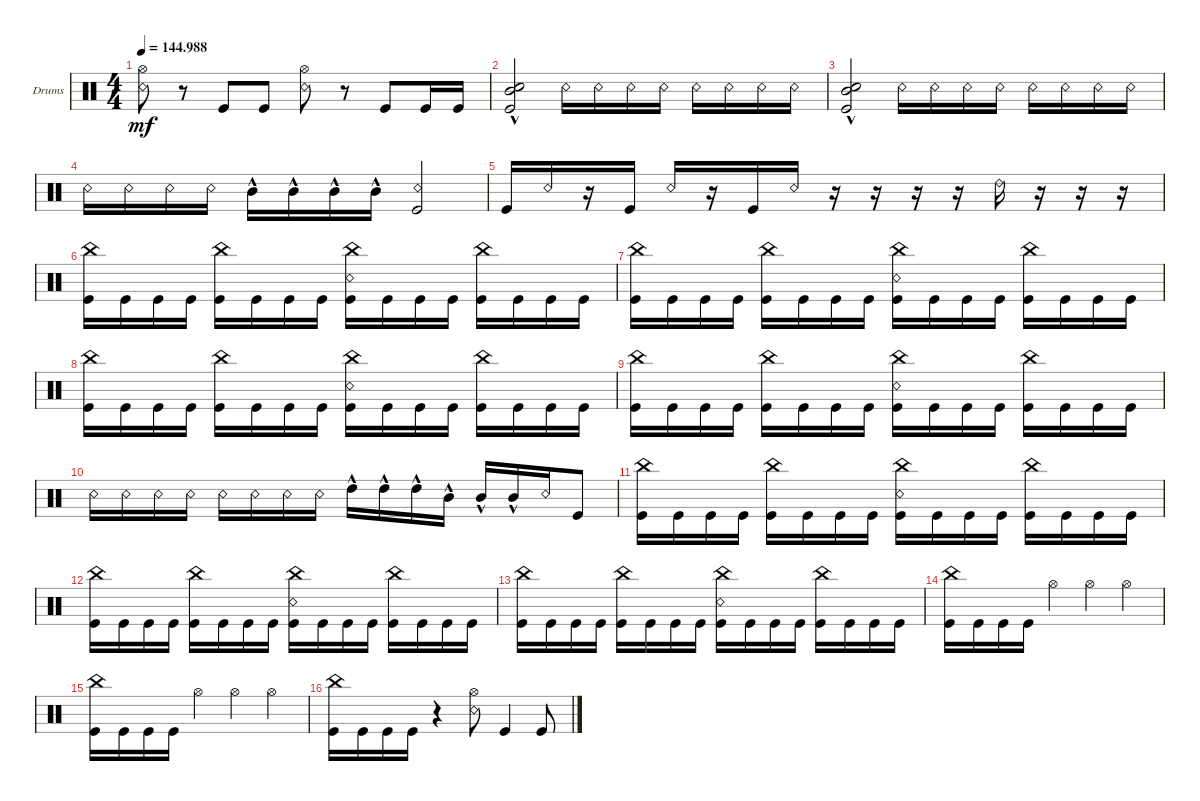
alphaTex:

\defaultSystemsLayout 4
\bracketExtendMode groupsimilarinstruments
\firstSystemTrackNameOrientation horizontal
\otherSystemsTrackNameOrientation horizontal
\track ("Drumkit" "Drums") {instrument percussion}
\staff {score}
\articulation defaults
\ts (4 4)
\tempo
144.988
\accidentals auto
\clef neutral
\ottava regular
\simile none
\ks c
("Snare (rim shot)" "Hi-Hat (open)").8{dy mf} r.8 "Kick (hit)".8 "Kick (hit)".8 ("Snare (rim shot)" "Hi-Hat (open)").8 r.8 "Kick (hit)".8 "Kick (hit)".16 "Kick (hit)".16 |
("Snare (hit) 2"{hac} "Kick (hit)" "Mid Tom (hit)"{hac}).2 "Snare (rim shot)".16 "Snare (rim shot)".16 "Snare (rim shot)".16 "Snare (rim shot)".16 "Snare (rim shot)".16 "Snare (rim shot)".16 "Snare (rim shot)".16 "Snare (rim shot)".16 |
("Snare (hit) 2"{hac} "Kick (hit)" "Mid Tom (hit)"{hac}).2 "Snare (rim shot)".16 "Snare (rim shot)".16 "Snare (rim shot)".16 "Snare (rim shot)".16 "Snare (rim shot)".16 "Snare (rim shot)".16 "Snare (rim shot)".16 "Snare (rim shot)".16 |
"Snare (rim shot)".16 "Snare (rim shot)".16 "Snare (rim shot)".16 "Snare (rim shot)".16 "Mid Tom (hit)"{hac}.16 "Mid Tom (hit)"{hac}.16 "Mid Tom (hit)"{hac}.16 "Mid Tom (hit)"{hac}.16 ("Kick (hit)" "Snare (rim shot)").2 |
"Kick (hit)".16 "Snare (rim shot)".16 r.16 "Kick (hit)".16 "Snare (rim shot)".16 r.16 "Kick (hit)".16 "Snare (rim shot)".16 r.16 r.16 r.16 r.16 "Ride (bell) 2".16 r.16 r.16 r.16 |
("Kick (hit)" "China (hit)").16 "Kick (hit)".16 "Kick (hit)".16 "Kick (hit)".16 ("Kick (hit)" "China (hit)").16 "Kick (hit)".16 "Kick (hit)".16 "Kick (hit)".16 ("Kick (hit)" "China (hit)" "Snare (rim shot)").16 "Kick (hit)".16 "Kick (hit)".16 "Kick (hit)".16 ("Kick (hit)" "China (hit)").16 "Kick (hit)".16 "Kick (hit)".16 "Kick (hit)".16 |
("Kick (hit)" "China (hit)").16 "Kick (hit)".16 "Kick (hit)".16 "Kick (hit)".16 ("Kick (hit)" "China (hit)").16 "Kick (hit)".16 "Kick (hit)".16 "Kick (hit)".16 ("Kick (hit)" "China (hit)" "Snare (rim shot)").16 "Kick (hit)".16 "Kick (hit)".16 "Kick (hit)".16 ("Kick (hit)" "China (hit)").16 "Kick (hit)".16 "Kick (hit)".16 "Kick (hit)".16 |
("Kick (hit)" "China (hit)").16 "Kick (hit)".16 "Kick (hit)".16 "Kick (hit)".16 ("Kick (hit)" "China (hit)").16 "Kick (hit)".16 "Kick (hit)".16 "Kick (hit)".16 ("Kick (hit)" "China (hit)" "Snare (rim shot)").16 "Kick (hit)".16 "Kick (hit)".16 "Kick (hit)".16 ("Kick (hit)" "China (hit)").16 "Kick (hit)".16 "Kick (hit)".16 "Kick (hit)".16 |
("Kick (hit)" "China (hit)").16 "Kick (hit)".16 "Kick (hit)".16 "Kick (hit)".16 ("Kick (hit)" "China (hit)").16 "Kick (hit)".16 "Kick (hit)".16 "Kick (hit)".16 ("Kick (hit)" "China (hit)" "Snare (rim shot)").16 "Kick (hit)".16 "Kick (hit)".16 "Kick (hit)".16 ("Kick (hit)" "China (hit)").16 "Kick (hit)".16 "Kick (hit)".16 "Kick (hit)".16 |
"Snare (rim shot)".16 "Snare (rim shot)".16 "Snare (rim shot)".16 "Snare (rim shot)".16 "Snare (rim shot)".16 "Snare (rim shot)".16 "Snare (rim shot)".16 "Snare (rim shot)".16 "High Tom (hit)"{hac}.16 "High Tom (hit)"{hac}.16 "High Tom (hit)"{hac}.16 "Mid Tom (hit)"{hac}.16 "Mid Tom (hit)"{hac}.16 "Mid Tom (hit)"{hac}.16 "Snare (rim shot)".16 "Kick (hit)".8 |
("Kick (hit)" "China (hit)").16 "Kick (hit)".16 "Kick (hit)".16 "Kick (hit)".16 ("Kick (hit)" "China (hit)").16 "Kick (hit)".16 "Kick (hit)".16 "Kick (hit)".16 ("Kick (hit)" "China (hit)" "Snare (rim shot)").16 "Kick (hit)".16 "Kick (hit)".16 "Kick (hit)".16 ("Kick (hit)" "China (hit)").16 "Kick (hit)".16 "Kick (hit)".16 "Kick (hit)".16 |
("Kick (hit)" "China (hit)").16 "Kick (hit)".16 "Kick (hit)".16 "Kick (hit)".16 ("Kick (hit)" "China (hit)").16 "Kick (hit)".16 "Kick (hit)".16 "Kick (hit)".16 ("Kick (hit)" "China (hit)" "Snare (rim shot)").16 "Kick (hit)".16 "Kick (hit)".16 "Kick (hit)".16 ("Kick (hit)" "China (hit)").16 "Kick (hit)".16 "Kick (hit)".16 "Kick (hit)".16 |
("Kick (hit)" "China (hit)").16 "Kick (hit)".16 "Kick (hit)".16 "Kick (hit)".16 ("Kick (hit)" "China (hit)").16 "Kick (hit)".16 "Kick (hit)".16 "Kick (hit)".16 ("Kick (hit)" "China (hit)" "Snare (rim shot)").16 "Kick (hit)".16 "Kick (hit)".16 "Kick (hit)".16 ("Kick (hit)" "China (hit)").16 "Kick (hit)".16 "Kick (hit)".16 "Kick (hit)".16 |
("Kick (hit)" "China (hit)").16 "Kick (hit)".16 "Kick (hit)".16 "Kick (hit)".16 "Hi-Hat (open)".4 "Hi-Hat (open)".4 "Hi-Hat (open)".4 |
("Kick (hit)" "China (hit)").16 "Kick (hit)".16 "Kick (hit)".16 "Kick (hit)".16 "Hi-Hat (open)".4 "Hi-Hat (open)".4 "Hi-Hat (open)".4 |
("Kick (hit)" "China (hit)").16 "Kick (hit)".16 "Kick (hit)".16 "Kick (hit)".16 r.4 ("Hi-Hat (open)" "Snare (rim shot)").8 "Kick (hit)".4 "Kick (hit)".8
